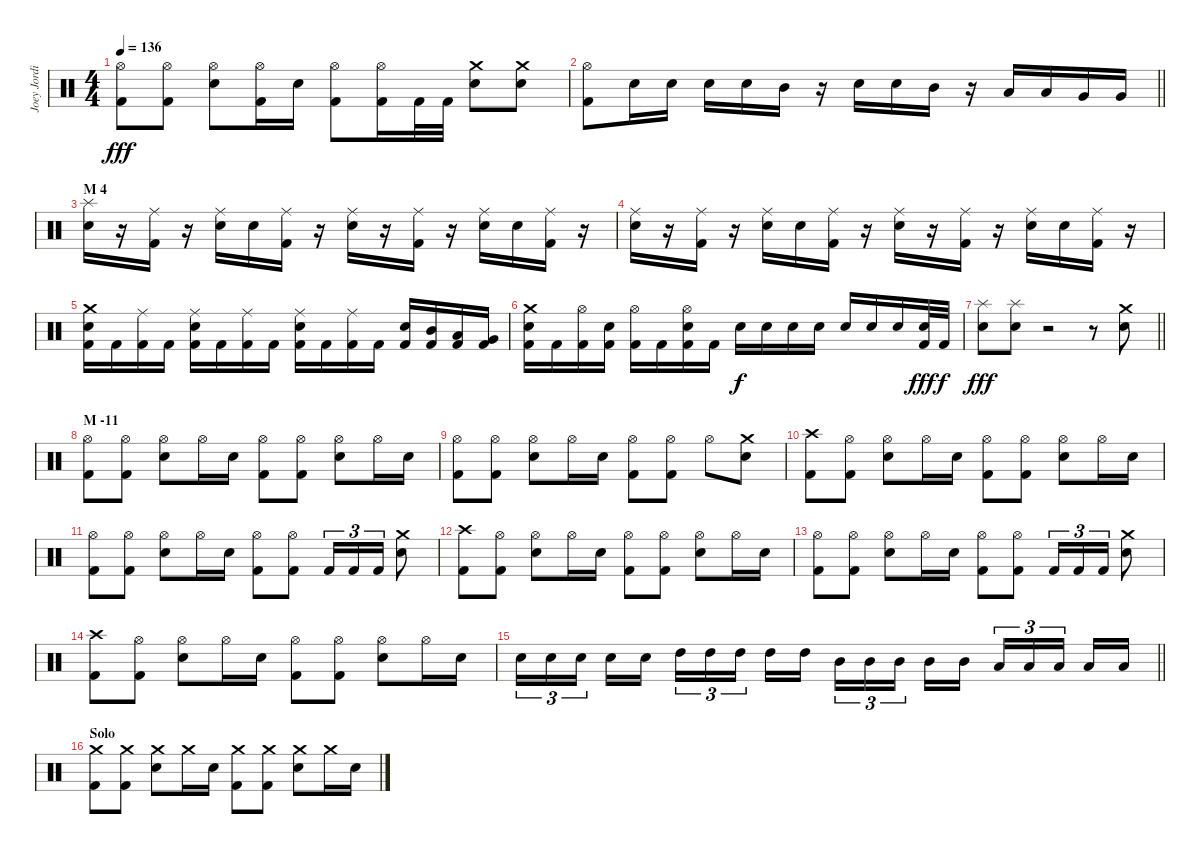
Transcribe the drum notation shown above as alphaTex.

\track ("Joey Jordison" "Joey Jordi") {instrument percussion}
\staff {score}
\articulation defaults
\ts (4 4)
\tempo 136
\clef neutral
\ks c
("Hi-Hat (open)" "Kick (hit) 2").8{dy fff} ("Hi-Hat (open)" "Kick (hit) 2").8 ("Hi-Hat (open)" "Electric Snare (hit)").8 ("Hi-Hat (open)" "Kick (hit) 2").16 "Electric Snare (hit)".16 ("Hi-Hat (open)" "Kick (hit) 2").8 ("Hi-Hat (open)" "Kick (hit) 2").16 "Kick (hit) 2".32 "Kick (hit) 2".32 ("Crash medium (hit)" "Electric Snare (hit)").8 ("Crash medium (hit)" "Electric Snare (hit)").8 |
\barLineRight lightlight
("Hi-Hat (open)" "Kick (hit) 2").8 "Electric Snare (hit)".16 "Electric Snare (hit)".16 "Electric Snare (hit)".16 "Electric Snare (hit)".16 "Mid Tom (hit)".16 r.16 "Electric Snare (hit)".16 "Electric Snare (hit)".16 "Mid Tom (hit)".16 r.16 "Low Tom (hit)".16 "Low Tom (hit)".16 "Very Low Tom (hit)".16 "Very Low Tom (hit)".16 |
\section ("" "M 4")
("Splash (hit)" "Electric Snare (hit)").16 r.16 ("Ride (middle)" "Kick (hit) 2").16 r.16 ("Ride (middle)" "Electric Snare (hit)").16 "Electric Snare (hit)".16 ("Ride (middle)" "Kick (hit) 2").16 r.16 ("Ride (middle)" "Electric Snare (hit)").16 r.16 ("Ride (middle)" "Kick (hit) 2").16 r.16 ("Ride (middle)" "Electric Snare (hit)").16 "Electric Snare (hit)".16 ("Ride (middle)" "Kick (hit) 2").16 r.16 |
("Ride (middle)" "Electric Snare (hit)").16 r.16 ("Ride (middle)" "Kick (hit) 2").16 r.16 ("Ride (middle)" "Electric Snare (hit)").16 "Electric Snare (hit)".16 ("Ride (middle)" "Kick (hit) 2").16 r.16 ("Ride (middle)" "Electric Snare (hit)").16 r.16 ("Ride (middle)" "Kick (hit) 2").16 r.16 ("Ride (middle)" "Electric Snare (hit)").16 "Electric Snare (hit)".16 ("Ride (middle)" "Kick (hit) 2").16 r.16 |
("Crash medium (hit)" "Electric Snare (hit)" "Kick (hit) 2").16 "Kick (hit) 2".16 ("Ride (middle)" "Kick (hit) 2").16 "Kick (hit) 2".16 ("Ride (middle)" "Electric Snare (hit)" "Kick (hit) 2").16 "Kick (hit) 2".16 ("Ride (middle)" "Kick (hit) 2").16 "Kick (hit) 2".16 ("Ride (middle)" "Electric Snare (hit)" "Kick (hit) 2").16 "Kick (hit) 2".16 ("Ride (middle)" "Kick (hit) 2").16 "Kick (hit) 2".16 ("Electric Snare (hit)" "Kick (hit) 2").16 ("Mid Tom (hit)" "Kick (hit) 2").16 ("Low Tom (hit)" "Kick (hit) 2").16 ("Very Low Tom (hit)" "Kick (hit) 2").16 |
("Crash medium (hit)" "Electric Snare (hit)" "Kick (hit) 2").16 "Kick (hit) 2".16 ("Hi-Hat (open)" "Kick (hit) 2").16 ("Electric Snare (hit)" "Kick (hit) 2").16 ("Hi-Hat (open)" "Kick (hit) 2").16 "Kick (hit) 2".16 ("Hi-Hat (open)" "Electric Snare (hit)" "Kick (hit) 2").16 "Kick (hit) 2".16 "Electric Snare (hit)".16{dy f} "Electric Snare (hit)".16 "Electric Snare (hit)".16 "Electric Snare (hit)".16 "Electric Snare (hit)".16 "Electric Snare (hit)".16 "Electric Snare (hit)".16 ("Electric Snare (hit)" "Kick (hit) 2").32{dy fff} "Kick (hit) 2".32{dy f} |
\barLineRight lightlight
("Splash (hit)" "Electric Snare (hit)").8{dy fff} ("Splash (hit)" "Electric Snare (hit)").8 r.2 r.8 ("Crash medium (hit)" "Electric Snare (hit)").8 |
\section ("" "M -11")
("Hi-Hat (open)" "Kick (hit) 2").8 ("Hi-Hat (open)" "Kick (hit) 2").8 ("Hi-Hat (open)" "Electric Snare (hit)").8 "Hi-Hat (open)".16 "Electric Snare (hit)".16 ("Hi-Hat (open)" "Kick (hit) 2").8 ("Hi-Hat (open)" "Kick (hit) 2").8 ("Hi-Hat (open)" "Electric Snare (hit)").8 "Hi-Hat (open)".16 "Electric Snare (hit)".16 |
("Hi-Hat (open)" "Kick (hit) 2").8 ("Hi-Hat (open)" "Kick (hit) 2").8 ("Hi-Hat (open)" "Electric Snare (hit)").8 "Hi-Hat (open)".16 "Electric Snare (hit)".16 ("Hi-Hat (open)" "Kick (hit) 2").8 ("Hi-Hat (open)" "Kick (hit) 2").8 "Hi-Hat (open)".8 ("Crash medium (hit)" "Electric Snare (hit)").8 |
("Crash high (hit)" "Kick (hit) 2").8 ("Hi-Hat (open)" "Kick (hit) 2").8 ("Hi-Hat (open)" "Electric Snare (hit)").8 "Hi-Hat (open)".16 "Electric Snare (hit)".16 ("Hi-Hat (open)" "Kick (hit) 2").8 ("Hi-Hat (open)" "Kick (hit) 2").8 ("Hi-Hat (open)" "Electric Snare (hit)").8 "Hi-Hat (open)".16 "Electric Snare (hit)".16 |
("Hi-Hat (open)" "Kick (hit) 2").8 ("Hi-Hat (open)" "Kick (hit) 2").8 ("Hi-Hat (open)" "Electric Snare (hit)").8 "Hi-Hat (open)".16 "Electric Snare (hit)".16 ("Hi-Hat (open)" "Kick (hit) 2").8 ("Hi-Hat (open)" "Kick (hit) 2").8 "Kick (hit) 2".16{tu (3 2)} "Kick (hit) 2".16{tu (3 2)} "Kick (hit) 2".16{tu (3 2)} ("Crash medium (hit)" "Electric Snare (hit)").8 |
("Crash high (hit)" "Kick (hit) 2").8 ("Hi-Hat (open)" "Kick (hit) 2").8 ("Hi-Hat (open)" "Electric Snare (hit)").8 "Hi-Hat (open)".16 "Electric Snare (hit)".16 ("Hi-Hat (open)" "Kick (hit) 2").8 ("Hi-Hat (open)" "Kick (hit) 2").8 ("Hi-Hat (open)" "Electric Snare (hit)").8 "Hi-Hat (open)".16 "Electric Snare (hit)".16 |
("Hi-Hat (open)" "Kick (hit) 2").8 ("Hi-Hat (open)" "Kick (hit) 2").8 ("Hi-Hat (open)" "Electric Snare (hit)").8 "Hi-Hat (open)".16 "Electric Snare (hit)".16 ("Hi-Hat (open)" "Kick (hit) 2").8 ("Hi-Hat (open)" "Kick (hit) 2").8 "Kick (hit) 2".16{tu (3 2)} "Kick (hit) 2".16{tu (3 2)} "Kick (hit) 2".16{tu (3 2)} ("Crash medium (hit)" "Electric Snare (hit)").8 |
("Crash high (hit)" "Kick (hit) 2").8 ("Hi-Hat (open)" "Kick (hit) 2").8 ("Hi-Hat (open)" "Electric Snare (hit)").8 "Hi-Hat (open)".16 "Electric Snare (hit)".16 ("Hi-Hat (open)" "Kick (hit) 2").8 ("Hi-Hat (open)" "Kick (hit) 2").8 ("Hi-Hat (open)" "Electric Snare (hit)").8 "Hi-Hat (open)".16 "Electric Snare (hit)".16 |
\barLineRight lightlight "Electric Snare (hit)".16{tu (3 2)} "Electric Snare (hit)".16{tu (3 2)} "Electric Snare (hit)".16{tu (3 2) beam splitsecondary} "Electric Snare (hit)".16 "Electric Snare (hit)".16 "High Tom (hit)".16{tu (3 2)} "High Tom (hit)".16{tu (3 2)} "High Tom (hit)".16{tu (3 2) beam splitsecondary} "High Tom (hit)".16 "High Tom (hit)".16 "Mid Tom (hit)".16{tu (3 2)} "Mid Tom (hit)".16{tu (3 2)} "Mid Tom (hit)".16{tu (3 2) beam splitsecondary} "Mid Tom (hit)".16 "Mid Tom (hit)".16 "Low Tom (hit)".16{tu (3 2)} "Low Tom (hit)".16{tu (3 2)} "Low Tom (hit)".16{tu (3 2) beam splitsecondary} "Low Tom (hit)".16 "Low Tom (hit)".16
|
\section ("" "Solo")
("Crash medium (hit)" "Kick (hit) 2").8 ("Crash medium (hit)" "Kick (hit) 2").8 ("Crash medium (hit)" "Electric Snare (hit)").8 "Crash medium (hit)".16 "Electric Snare (hit)".16 ("Crash medium (hit)" "Kick (hit) 2").8 ("Crash medium (hit)" "Kick (hit) 2").8 ("Crash medium (hit)" "Electric Snare (hit)").8 "Crash medium (hit)".16 "Electric Snare (hit)".16
